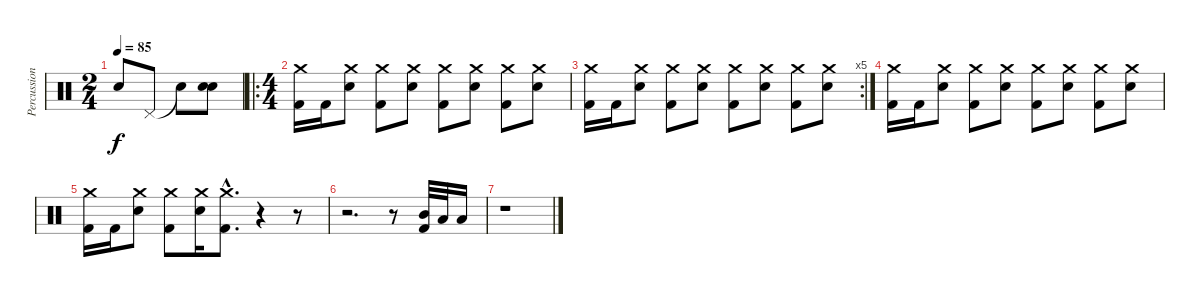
\track ("Percussion" "Percussion") {instrument percussion}
\staff {score}
\articulation defaults
\ts (2 4)
\tempo 85
\clef neutral
\ks c "Snare (hit)"{t}.8{dy f} "Pedal Hi-Hat (hit)".8 "Snare (hit)"{t}.8
("Electric Snare (hit)" "Electric Snare (hit)").8 |
\ro
\ts (4 4)
("Crash medium (hit)" "Kick (hit) 2").16 "Kick (hit) 2".16 ("Crash medium (hit)" "Electric Snare (hit)").8 ("Crash medium (hit)" "Kick (hit) 2").8 ("Crash medium (hit)" "Electric Snare (hit)").8 ("Crash medium (hit)" "Kick (hit) 2").8 ("Crash medium (hit)" "Electric Snare (hit)").8 ("Crash medium (hit)" "Kick (hit) 2").8 ("Crash medium (hit)" "Electric Snare (hit)").8 |
\rc 5
("Crash medium (hit)" "Kick (hit) 2").16 "Kick (hit) 2".16 ("Crash medium (hit)" "Electric Snare (hit)").8 ("Crash medium (hit)" "Kick (hit) 2").8 ("Crash medium (hit)" "Electric Snare (hit)").8 ("Crash medium (hit)" "Kick (hit) 2").8 ("Crash medium (hit)" "Electric Snare (hit)").8 ("Crash medium (hit)" "Kick (hit) 2").8 ("Crash medium (hit)" "Electric Snare (hit)").8 |
("Crash medium (hit)" "Kick (hit) 2").16 "Kick (hit) 2".16 ("Crash medium (hit)" "Electric Snare (hit)").8 ("Crash medium (hit)" "Kick (hit) 2").8 ("Crash medium (hit)" "Electric Snare (hit)").8 ("Crash medium (hit)" "Kick (hit) 2").8 ("Crash medium (hit)" "Electric Snare (hit)").8 ("Crash medium (hit)" "Kick (hit) 2").8 ("Crash medium (hit)" "Electric Snare (hit)").8 |
("Crash medium (hit)" "Kick (hit) 2").16 "Kick (hit) 2".16 ("Crash medium (hit)" "Electric Snare (hit)").8 ("Crash medium (hit)" "Kick (hit) 2").8 ("Crash medium (hit)" "Electric Snare (hit)").16 ("Crash medium (hit)"{hac} "Kick (hit) 2"{hac}).8{d} r.4 r.8 |
r.2{d} r.8 ("Mid Tom (hit)" "Kick (hit) 2").32 "Low Tom (hit)".32 "Low Floor Tom (hit)".16 |
r.1
